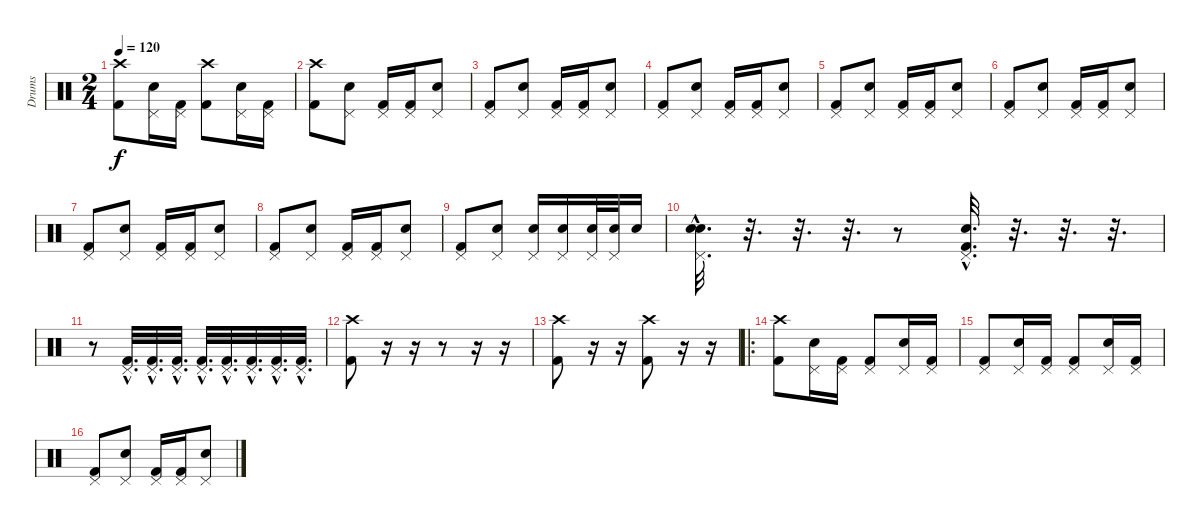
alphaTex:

\track ("Drums" "Drums") {instrument percussion}
\staff {score}
\articulation defaults
\ts (2 4)
\tempo 120
\clef neutral
\ks c
("Kick (hit) 2" "Crash high (hit)").8{dy f} ("Electric Snare (hit)" "Pedal Hi-Hat (hit)").16 ("Kick (hit) 2" "Pedal Hi-Hat (hit)").16 ("Kick (hit) 2" "Crash high (hit)").8 ("Electric Snare (hit)" "Pedal Hi-Hat (hit)").16 ("Kick (hit) 2" "Pedal Hi-Hat (hit)").16 |
("Kick (hit) 2" "Crash high (hit)").8 ("Electric Snare (hit)" "Pedal Hi-Hat (hit)").8 ("Kick (hit) 2" "Pedal Hi-Hat (hit)").16 ("Kick (hit) 2" "Pedal Hi-Hat (hit)").16 ("Electric Snare (hit)" "Pedal Hi-Hat (hit)").8 |
("Kick (hit) 2" "Pedal Hi-Hat (hit)").8 ("Electric Snare (hit)" "Pedal Hi-Hat (hit)").8 ("Kick (hit) 2" "Pedal Hi-Hat (hit)").16 ("Kick (hit) 2" "Pedal Hi-Hat (hit)").16 ("Electric Snare (hit)" "Pedal Hi-Hat (hit)").8 |
("Kick (hit) 2" "Pedal Hi-Hat (hit)").8 ("Electric Snare (hit)" "Pedal Hi-Hat (hit)").8 ("Kick (hit) 2" "Pedal Hi-Hat (hit)").16 ("Kick (hit) 2" "Pedal Hi-Hat (hit)").16 ("Electric Snare (hit)" "Pedal Hi-Hat (hit)").8 |
("Kick (hit) 2" "Pedal Hi-Hat (hit)").8 ("Electric Snare (hit)" "Pedal Hi-Hat (hit)").8 ("Kick (hit) 2" "Pedal Hi-Hat (hit)").16 ("Kick (hit) 2" "Pedal Hi-Hat (hit)").16 ("Electric Snare (hit)" "Pedal Hi-Hat (hit)").8 |
("Kick (hit) 2" "Pedal Hi-Hat (hit)").8 ("Electric Snare (hit)" "Pedal Hi-Hat (hit)").8 ("Kick (hit) 2" "Pedal Hi-Hat (hit)").16 ("Kick (hit) 2" "Pedal Hi-Hat (hit)").16 ("Electric Snare (hit)" "Pedal Hi-Hat (hit)").8 |
("Kick (hit) 2" "Pedal Hi-Hat (hit)").8 ("Electric Snare (hit)" "Pedal Hi-Hat (hit)").8 ("Kick (hit) 2" "Pedal Hi-Hat (hit)").16 ("Kick (hit) 2" "Pedal Hi-Hat (hit)").16 ("Electric Snare (hit)" "Pedal Hi-Hat (hit)").8 |
("Kick (hit) 2" "Pedal Hi-Hat (hit)").8 ("Electric Snare (hit)" "Pedal Hi-Hat (hit)").8 ("Kick (hit) 2" "Pedal Hi-Hat (hit)").16 ("Kick (hit) 2" "Pedal Hi-Hat (hit)").16 ("Electric Snare (hit)" "Pedal Hi-Hat (hit)").8 |
("Kick (hit) 2" "Pedal Hi-Hat (hit)").8 ("Electric Snare (hit)" "Pedal Hi-Hat (hit)").8 ("Electric Snare (hit)" "Pedal Hi-Hat (hit)").16 ("Electric Snare (hit)" "Pedal Hi-Hat (hit)").16 ("Electric Snare (hit)" "Pedal Hi-Hat (hit)").32 ("Electric Snare (hit)" "Pedal Hi-Hat (hit)").32 "Electric Snare (hit)".16 |
("Electric Snare (hit)"{hac} "Snare (hit)"{hac} "Pedal Hi-Hat (hit)"{hac}).32{d} r.32{d} r.32{d} r.32{d} r.8 ("Electric Snare (hit)"{hac} "Kick (hit) 2"{hac} "Pedal Hi-Hat (hit)"{hac}).32{d} r.32{d} r.32{d} r.32{d} |
r.8 ("Kick (hit) 2"{hac} "Pedal Hi-Hat (hit)"{hac}).32{d} ("Kick (hit) 2"{hac} "Pedal Hi-Hat (hit)"{hac}).32{d} ("Kick (hit) 2"{hac} "Pedal Hi-Hat (hit)"{hac}).32{d} ("Kick (hit) 2"{hac} "Pedal Hi-Hat (hit)"{hac}).32{d} ("Kick (hit) 2"{hac} "Pedal Hi-Hat (hit)"{hac}).32{d} ("Kick (hit) 2"{hac} "Pedal Hi-Hat (hit)"{hac}).32{d} ("Kick (hit) 2"{hac} "Pedal Hi-Hat (hit)"{hac}).32{d} ("Kick (hit) 2"{hac} "Pedal Hi-Hat (hit)"{hac}).32{d} |
("Kick (hit) 2" "Crash high (hit)").8 r.16 r.16 r.8 r.16 r.16 |
("Kick (hit) 2" "Crash high (hit)").8 r.16 r.16 ("Kick (hit) 2" "Crash high (hit)").8 r.16 r.16 |
\ro
("Kick (hit) 2" "Crash high (hit)").8 ("Electric Snare (hit)" "Pedal Hi-Hat (hit)").16 ("Kick (hit) 2" "Pedal Hi-Hat (hit)").16 ("Kick (hit) 2" "Pedal Hi-Hat (hit)").8 ("Electric Snare (hit)" "Pedal Hi-Hat (hit)").16 ("Kick (hit) 2" "Pedal Hi-Hat (hit)").16 |
("Kick (hit) 2" "Pedal Hi-Hat (hit)").8 ("Electric Snare (hit)" "Pedal Hi-Hat (hit)").16 ("Kick (hit) 2" "Pedal Hi-Hat (hit)").16 ("Kick (hit) 2" "Pedal Hi-Hat (hit)").8 ("Electric Snare (hit)" "Pedal Hi-Hat (hit)").16 ("Kick (hit) 2" "Pedal Hi-Hat (hit)").16 |
("Kick (hit) 2" "Pedal Hi-Hat (hit)").8 ("Electric Snare (hit)" "Pedal Hi-Hat (hit)").8 ("Kick (hit) 2" "Pedal Hi-Hat (hit)").16 ("Kick (hit) 2" "Pedal Hi-Hat (hit)").16 ("Electric Snare (hit)" "Pedal Hi-Hat (hit)").8
